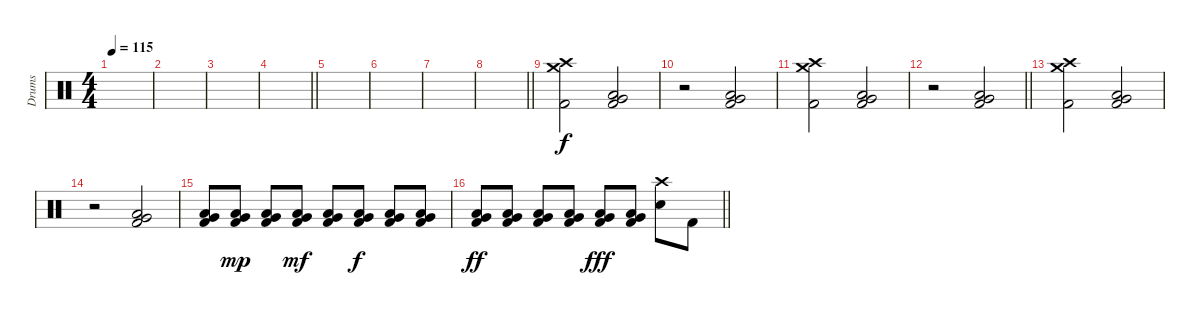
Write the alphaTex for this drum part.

\track ("Drums" "Drums") {instrument percussion}
\staff {score}
\articulation defaults
\ts (4 4)
\tempo 115
\clef neutral
\ks c
|
|
|
\barLineRight lightlight
|
|
|
|
\barLineRight lightlight
|
("Crash medium (hit)" "Crash high (hit)" "Kick (hit) 2").2 ("Very Low Tom (hit)" "Low Floor Tom (hit)" "Kick (hit) 2").2 |
r.2 ("Very Low Tom (hit)" "Low Floor Tom (hit)" "Kick (hit) 2").2 |
("Crash medium (hit)" "Crash high (hit)" "Kick (hit) 2").2 ("Very Low Tom (hit)" "Low Floor Tom (hit)" "Kick (hit) 2").2 |
\barLineRight lightlight
r.2 ("Very Low Tom (hit)" "Low Floor Tom (hit)" "Kick (hit) 2").2 |
("Crash medium (hit)" "Crash high (hit)" "Kick (hit) 2").2 ("Very Low Tom (hit)" "Low Floor Tom (hit)" "Kick (hit) 2").2 |
r.2 ("Very Low Tom (hit)" "Low Floor Tom (hit)" "Kick (hit) 2").2 |
("Very Low Tom (hit)" "Low Floor Tom (hit)" "Kick (hit) 2").8 ("Very Low Tom (hit)" "Low Floor Tom (hit)" "Kick (hit) 2").8{dy mp} ("Very Low Tom (hit)" "Low Floor Tom (hit)" "Kick (hit) 2").8 ("Very Low Tom (hit)" "Low Floor Tom (hit)" "Kick (hit) 2").8{dy mf} ("Very Low Tom (hit)" "Low Floor Tom (hit)" "Kick (hit) 2").8 ("Very Low Tom (hit)" "Low Floor Tom (hit)" "Kick (hit) 2").8{dy f} ("Very Low Tom (hit)" "Low Floor Tom (hit)" "Kick (hit) 2").8 ("Very Low Tom (hit)" "Low Floor Tom (hit)" "Kick (hit) 2").8 |
\barLineRight lightlight
("Very Low Tom (hit)" "Low Floor Tom (hit)" "Kick (hit) 2").8{dy ff} ("Very Low Tom (hit)" "Low Floor Tom (hit)" "Kick (hit) 2").8 ("Very Low Tom (hit)" "Low Floor Tom (hit)" "Kick (hit) 2").8 ("Very Low Tom (hit)" "Low Floor Tom (hit)" "Kick (hit) 2").8 ("Very Low Tom (hit)" "Low Floor Tom (hit)" "Kick (hit) 2").8{dy fff} ("Very Low Tom (hit)" "Low Floor Tom (hit)" "Kick (hit) 2").8 ("Crash high (hit)" "Electric Snare (hit)").8 "Kick (hit) 2".8
